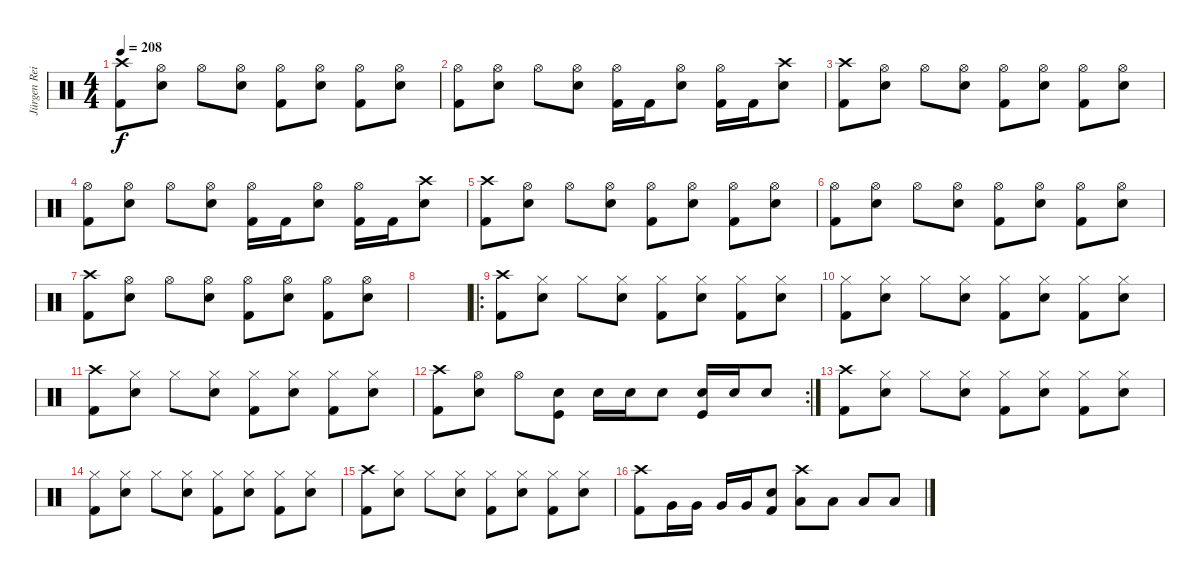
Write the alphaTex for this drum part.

\track ("Jürgen Reil" "Jürgen Rei") {instrument percussion}
\staff {score}
\articulation defaults
\ts (4 4)
\tempo 208
\clef neutral
\ks c
("Crash high (hit)" "Kick (hit) 2").8{dy f} ("Hi-Hat (open)" "Electric Snare (hit)").8 "Hi-Hat (open)".8 ("Hi-Hat (open)" "Electric Snare (hit)").8 ("Hi-Hat (open)" "Kick (hit) 2").8 ("Hi-Hat (open)" "Electric Snare (hit)").8 ("Hi-Hat (open)" "Kick (hit) 2").8 ("Hi-Hat (open)" "Electric Snare (hit)").8 |
("Hi-Hat (open)" "Kick (hit) 2").8 ("Hi-Hat (open)" "Electric Snare (hit)").8 "Hi-Hat (open)".8 ("Hi-Hat (open)" "Electric Snare (hit)").8 ("Hi-Hat (open)" "Kick (hit) 2").16 "Kick (hit) 2".16 ("Hi-Hat (open)" "Electric Snare (hit)").8 ("Hi-Hat (open)" "Kick (hit) 2").16 "Kick (hit) 2".16 ("Crash high (hit)" "Electric Snare (hit)").8 |
("Crash high (hit)" "Kick (hit) 2").8 ("Hi-Hat (open)" "Electric Snare (hit)").8 "Hi-Hat (open)".8 ("Hi-Hat (open)" "Electric Snare (hit)").8 ("Hi-Hat (open)" "Kick (hit) 2").8 ("Hi-Hat (open)" "Electric Snare (hit)").8 ("Hi-Hat (open)" "Kick (hit) 2").8 ("Hi-Hat (open)" "Electric Snare (hit)").8 |
("Hi-Hat (open)" "Kick (hit) 2").8 ("Hi-Hat (open)" "Electric Snare (hit)").8 "Hi-Hat (open)".8 ("Hi-Hat (open)" "Electric Snare (hit)").8 ("Hi-Hat (open)" "Kick (hit) 2").16 "Kick (hit) 2".16 ("Hi-Hat (open)" "Electric Snare (hit)").8 ("Hi-Hat (open)" "Kick (hit) 2").16 "Kick (hit) 2".16 ("Crash high (hit)" "Electric Snare (hit)").8 |
("Crash high (hit)" "Kick (hit) 2").8 ("Hi-Hat (open)" "Electric Snare (hit)").8 "Hi-Hat (open)".8 ("Hi-Hat (open)" "Electric Snare (hit)").8 ("Hi-Hat (open)" "Kick (hit) 2").8 ("Hi-Hat (open)" "Electric Snare (hit)").8 ("Hi-Hat (open)" "Kick (hit) 2").8 ("Hi-Hat (open)" "Electric Snare (hit)").8 |
("Hi-Hat (open)" "Kick (hit) 2").8 ("Hi-Hat (open)" "Electric Snare (hit)").8 "Hi-Hat (open)".8 ("Hi-Hat (open)" "Electric Snare (hit)").8 ("Hi-Hat (open)" "Kick (hit) 2").8 ("Hi-Hat (open)" "Electric Snare (hit)").8 ("Hi-Hat (open)" "Kick (hit) 2").8 ("Hi-Hat (open)" "Electric Snare (hit)").8 |
("Crash high (hit)" "Kick (hit) 2").8 ("Hi-Hat (open)" "Electric Snare (hit)").8 "Hi-Hat (open)".8 ("Hi-Hat (open)" "Electric Snare (hit)").8 ("Hi-Hat (open)" "Kick (hit) 2").8 ("Hi-Hat (open)" "Electric Snare (hit)").8 ("Hi-Hat (open)" "Kick (hit) 2").8 ("Hi-Hat (open)" "Electric Snare (hit)").8 |
|
\ro
("Crash high (hit)" "Kick (hit) 2").8 ("Hi-Hat (closed)" "Electric Snare (hit)").8 "Hi-Hat (closed)".8 ("Hi-Hat (closed)" "Electric Snare (hit)").8 ("Hi-Hat (closed)" "Kick (hit) 2").8 ("Hi-Hat (closed)" "Electric Snare (hit)").8 ("Hi-Hat (closed)" "Kick (hit) 2").8 ("Hi-Hat (closed)" "Electric Snare (hit)").8 |
("Hi-Hat (closed)" "Kick (hit) 2").8 ("Hi-Hat (closed)" "Electric Snare (hit)").8 "Hi-Hat (closed)".8 ("Hi-Hat (closed)" "Electric Snare (hit)").8 ("Hi-Hat (closed)" "Kick (hit) 2").8 ("Hi-Hat (closed)" "Electric Snare (hit)").8 ("Hi-Hat (closed)" "Kick (hit) 2").8 ("Hi-Hat (closed)" "Electric Snare (hit)").8 |
("Crash high (hit)" "Kick (hit) 2").8 ("Hi-Hat (closed)" "Electric Snare (hit)").8 "Hi-Hat (closed)".8 ("Hi-Hat (closed)" "Electric Snare (hit)").8 ("Hi-Hat (closed)" "Kick (hit) 2").8 ("Hi-Hat (closed)" "Electric Snare (hit)").8 ("Hi-Hat (closed)" "Kick (hit) 2").8 ("Hi-Hat (closed)" "Electric Snare (hit)").8 |
\rc 2
("Crash high (hit)" "Kick (hit) 2").8 ("Hi-Hat (open)" "Electric Snare (hit)").8 "Hi-Hat (open)".8 ("Kick (hit)" "Electric Snare (hit)").8 "Electric Snare (hit)".16 "Electric Snare (hit)".16 "Electric Snare (hit)".8 ("Kick (hit)" "Electric Snare (hit)").16 "Electric Snare (hit)".16 "Electric Snare (hit)".8 |
("Crash high (hit)" "Kick (hit) 2").8 ("Hi-Hat (closed)" "Electric Snare (hit)").8 "Hi-Hat (closed)".8 ("Hi-Hat (closed)" "Electric Snare (hit)").8 ("Hi-Hat (closed)" "Kick (hit) 2").8 ("Hi-Hat (closed)" "Electric Snare (hit)").8 ("Hi-Hat (closed)" "Kick (hit) 2").8 ("Hi-Hat (closed)" "Electric Snare (hit)").8 |
("Hi-Hat (closed)" "Kick (hit) 2").8 ("Hi-Hat (closed)" "Electric Snare (hit)").8 "Hi-Hat (closed)".8 ("Hi-Hat (closed)" "Electric Snare (hit)").8 ("Hi-Hat (closed)" "Kick (hit) 2").8 ("Hi-Hat (closed)" "Electric Snare (hit)").8 ("Hi-Hat (closed)" "Kick (hit) 2").8 ("Hi-Hat (closed)" "Electric Snare (hit)").8 |
("Crash high (hit)" "Kick (hit) 2").8 ("Hi-Hat (closed)" "Electric Snare (hit)").8 "Hi-Hat (closed)".8 ("Hi-Hat (closed)" "Electric Snare (hit)").8 ("Hi-Hat (closed)" "Kick (hit) 2").8 ("Hi-Hat (closed)" "Electric Snare (hit)").8 ("Hi-Hat (closed)" "Kick (hit) 2").8 ("Hi-Hat (closed)" "Electric Snare (hit)").8 |
("Crash high (hit)" "Kick (hit) 2").8 "Very Low Tom (hit)".16 "Very Low Tom (hit)".16 "Very Low Tom (hit)".16 "Very Low Tom (hit)".16 ("Electric Snare (hit)" "Kick (hit) 2").8 ("Crash high (hit)" "Low Tom (hit)").8 "Low Tom (hit)".8 "Low Floor Tom (hit)".8 "Low Floor Tom (hit)".8
